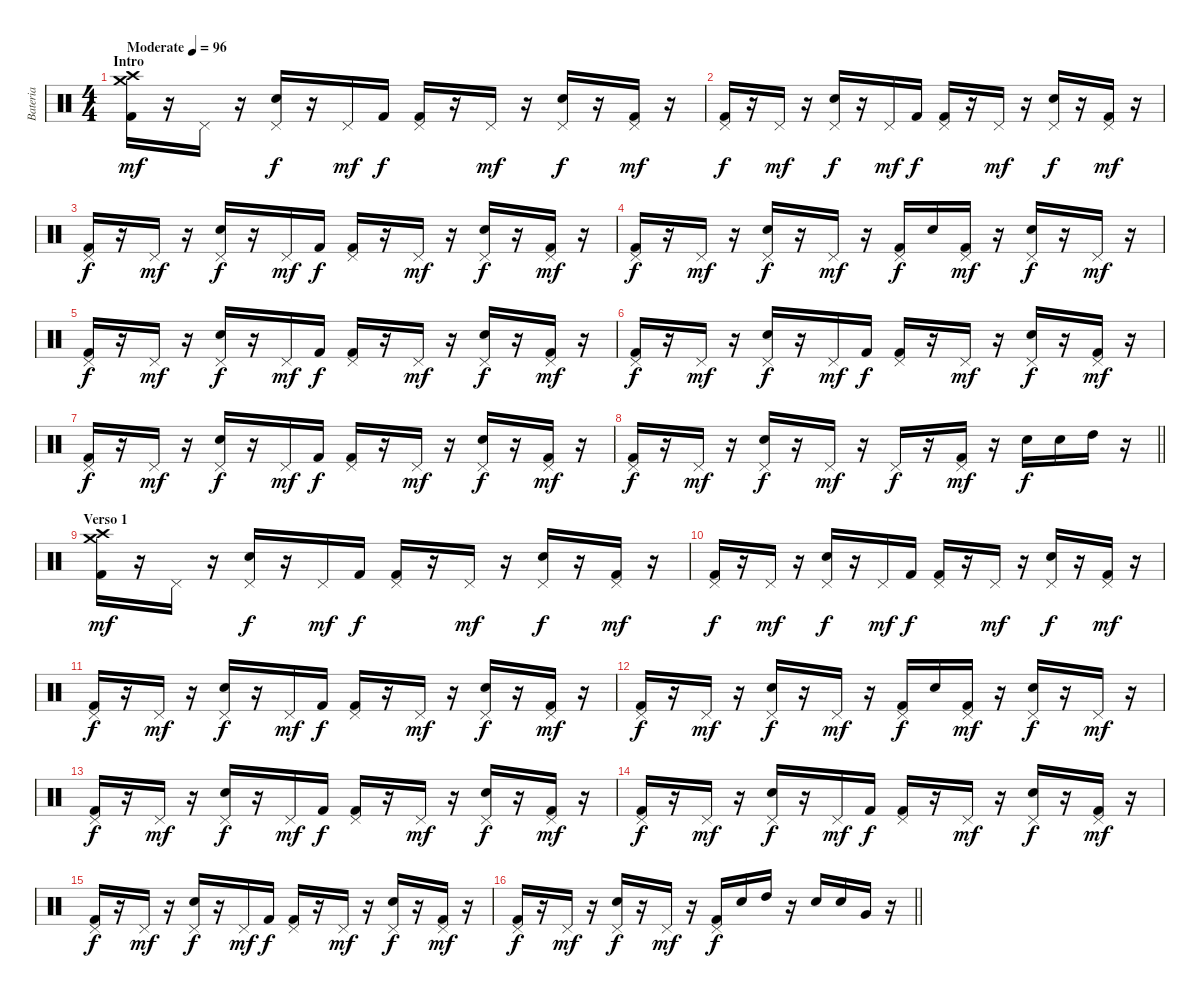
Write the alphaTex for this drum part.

\track ("Bateria" "Bateria") {instrument percussion}
\staff {score}
\articulation defaults
\ts (4 4)
\section ("" "Intro")
\tempo (96 "Moderate")
\clef neutral
\ks c
("Crash medium (hit)" "Crash high (hit)" "Kick (hit) 2").16{dy mf} r.16 "Pedal Hi-Hat (hit)".16 r.16 ("Pedal Hi-Hat (hit)" "Electric Snare (hit)").16{dy f} r.16 "Pedal Hi-Hat (hit)".16{dy mf} "Kick (hit) 2".16{dy f} ("Pedal Hi-Hat (hit)" "Kick (hit) 2").16 r.16 "Pedal Hi-Hat (hit)".16{dy mf} r.16 ("Pedal Hi-Hat (hit)" "Electric Snare (hit)").16{dy f} r.16 ("Pedal Hi-Hat (hit)" "Kick (hit) 2").16{dy mf} r.16 |
("Pedal Hi-Hat (hit)" "Kick (hit) 2").16{dy f} r.16 "Pedal Hi-Hat (hit)".16{dy mf} r.16 ("Pedal Hi-Hat (hit)" "Electric Snare (hit)").16{dy f} r.16 "Pedal Hi-Hat (hit)".16{dy mf} "Kick (hit) 2".16{dy f} ("Pedal Hi-Hat (hit)" "Kick (hit) 2").16 r.16 "Pedal Hi-Hat (hit)".16{dy mf} r.16 ("Pedal Hi-Hat (hit)" "Electric Snare (hit)").16{dy f} r.16 ("Pedal Hi-Hat (hit)" "Kick (hit) 2").16{dy mf} r.16 |
("Pedal Hi-Hat (hit)" "Kick (hit) 2").16{dy f} r.16 "Pedal Hi-Hat (hit)".16{dy mf} r.16 ("Pedal Hi-Hat (hit)" "Electric Snare (hit)").16{dy f} r.16 "Pedal Hi-Hat (hit)".16{dy mf} "Kick (hit) 2".16{dy f} ("Pedal Hi-Hat (hit)" "Kick (hit) 2").16 r.16 "Pedal Hi-Hat (hit)".16{dy mf} r.16 ("Pedal Hi-Hat (hit)" "Electric Snare (hit)").16{dy f} r.16 ("Pedal Hi-Hat (hit)" "Kick (hit) 2").16{dy mf} r.16 |
("Pedal Hi-Hat (hit)" "Kick (hit) 2").16{dy f} r.16 "Pedal Hi-Hat (hit)".16{dy mf} r.16 ("Pedal Hi-Hat (hit)" "Electric Snare (hit)").16{dy f} r.16 "Pedal Hi-Hat (hit)".16{dy mf} r.16 ("Pedal Hi-Hat (hit)" "Kick (hit) 2").16{dy f} "Electric Snare (hit)".16 ("Pedal Hi-Hat (hit)" "Kick (hit) 2").16{dy mf} r.16 ("Pedal Hi-Hat (hit)" "Electric Snare (hit)").16{dy f} r.16 "Pedal Hi-Hat (hit)".16{dy mf} r.16 |
("Pedal Hi-Hat (hit)" "Kick (hit) 2").16{dy f} r.16 "Pedal Hi-Hat (hit)".16{dy mf} r.16 ("Pedal Hi-Hat (hit)" "Electric Snare (hit)").16{dy f} r.16 "Pedal Hi-Hat (hit)".16{dy mf} "Kick (hit) 2".16{dy f} ("Pedal Hi-Hat (hit)" "Kick (hit) 2").16 r.16 "Pedal Hi-Hat (hit)".16{dy mf} r.16 ("Pedal Hi-Hat (hit)" "Electric Snare (hit)").16{dy f} r.16 ("Pedal Hi-Hat (hit)" "Kick (hit) 2").16{dy mf} r.16 |
("Pedal Hi-Hat (hit)" "Kick (hit) 2").16{dy f} r.16 "Pedal Hi-Hat (hit)".16{dy mf} r.16 ("Pedal Hi-Hat (hit)" "Electric Snare (hit)").16{dy f} r.16 "Pedal Hi-Hat (hit)".16{dy mf} "Kick (hit) 2".16{dy f} ("Pedal Hi-Hat (hit)" "Kick (hit) 2").16 r.16 "Pedal Hi-Hat (hit)".16{dy mf} r.16 ("Pedal Hi-Hat (hit)" "Electric Snare (hit)").16{dy f} r.16 ("Pedal Hi-Hat (hit)" "Kick (hit) 2").16{dy mf} r.16 |
("Pedal Hi-Hat (hit)" "Kick (hit) 2").16{dy f} r.16 "Pedal Hi-Hat (hit)".16{dy mf} r.16 ("Pedal Hi-Hat (hit)" "Electric Snare (hit)").16{dy f} r.16 "Pedal Hi-Hat (hit)".16{dy mf} "Kick (hit) 2".16{dy f} ("Pedal Hi-Hat (hit)" "Kick (hit) 2").16 r.16 "Pedal Hi-Hat (hit)".16{dy mf} r.16 ("Pedal Hi-Hat (hit)" "Electric Snare (hit)").16{dy f} r.16 ("Pedal Hi-Hat (hit)" "Kick (hit) 2").16{dy mf} r.16 |
\barLineRight lightlight
("Pedal Hi-Hat (hit)" "Kick (hit) 2").16{dy f} r.16 "Pedal Hi-Hat (hit)".16{dy mf} r.16 ("Pedal Hi-Hat (hit)" "Electric Snare (hit)").16{dy f} r.16 "Pedal Hi-Hat (hit)".16{dy mf} r.16 "Pedal Hi-Hat (hit)".16{dy f} r.16 ("Pedal Hi-Hat (hit)" "Kick (hit) 2").16{dy mf} r.16 "Electric Snare (hit)".16{dy f} "Electric Snare (hit)".16 "High Tom (hit)".16 r.16 |
\section ("" "Verso 1")
("Crash medium (hit)" "Crash high (hit)" "Kick (hit) 2").16{dy mf} r.16 "Pedal Hi-Hat (hit)".16 r.16 ("Pedal Hi-Hat (hit)" "Electric Snare (hit)").16{dy f} r.16 "Pedal Hi-Hat (hit)".16{dy mf} "Kick (hit) 2".16{dy f} ("Pedal Hi-Hat (hit)" "Kick (hit) 2").16 r.16 "Pedal Hi-Hat (hit)".16{dy mf} r.16 ("Pedal Hi-Hat (hit)" "Electric Snare (hit)").16{dy f} r.16 ("Pedal Hi-Hat (hit)" "Kick (hit) 2").16{dy mf} r.16 |
("Pedal Hi-Hat (hit)" "Kick (hit) 2").16{dy f} r.16 "Pedal Hi-Hat (hit)".16{dy mf} r.16 ("Pedal Hi-Hat (hit)" "Electric Snare (hit)").16{dy f} r.16 "Pedal Hi-Hat (hit)".16{dy mf} "Kick (hit) 2".16{dy f} ("Pedal Hi-Hat (hit)" "Kick (hit) 2").16 r.16 "Pedal Hi-Hat (hit)".16{dy mf} r.16 ("Pedal Hi-Hat (hit)" "Electric Snare (hit)").16{dy f} r.16 ("Pedal Hi-Hat (hit)" "Kick (hit) 2").16{dy mf} r.16 |
("Pedal Hi-Hat (hit)" "Kick (hit) 2").16{dy f} r.16 "Pedal Hi-Hat (hit)".16{dy mf} r.16 ("Pedal Hi-Hat (hit)" "Electric Snare (hit)").16{dy f} r.16 "Pedal Hi-Hat (hit)".16{dy mf} "Kick (hit) 2".16{dy f} ("Pedal Hi-Hat (hit)" "Kick (hit) 2").16 r.16 "Pedal Hi-Hat (hit)".16{dy mf} r.16 ("Pedal Hi-Hat (hit)" "Electric Snare (hit)").16{dy f} r.16 ("Pedal Hi-Hat (hit)" "Kick (hit) 2").16{dy mf} r.16 |
("Pedal Hi-Hat (hit)" "Kick (hit) 2").16{dy f} r.16 "Pedal Hi-Hat (hit)".16{dy mf} r.16 ("Pedal Hi-Hat (hit)" "Electric Snare (hit)").16{dy f} r.16 "Pedal Hi-Hat (hit)".16{dy mf} r.16 ("Pedal Hi-Hat (hit)" "Kick (hit) 2").16{dy f} "Electric Snare (hit)".16 ("Pedal Hi-Hat (hit)" "Kick (hit) 2").16{dy mf} r.16 ("Pedal Hi-Hat (hit)" "Electric Snare (hit)").16{dy f} r.16 "Pedal Hi-Hat (hit)".16{dy mf} r.16 |
("Pedal Hi-Hat (hit)" "Kick (hit) 2").16{dy f} r.16 "Pedal Hi-Hat (hit)".16{dy mf} r.16 ("Pedal Hi-Hat (hit)" "Electric Snare (hit)").16{dy f} r.16 "Pedal Hi-Hat (hit)".16{dy mf} "Kick (hit) 2".16{dy f} ("Pedal Hi-Hat (hit)" "Kick (hit) 2").16 r.16 "Pedal Hi-Hat (hit)".16{dy mf} r.16 ("Pedal Hi-Hat (hit)" "Electric Snare (hit)").16{dy f} r.16 ("Pedal Hi-Hat (hit)" "Kick (hit) 2").16{dy mf} r.16 |
("Pedal Hi-Hat (hit)" "Kick (hit) 2").16{dy f} r.16 "Pedal Hi-Hat (hit)".16{dy mf} r.16 ("Pedal Hi-Hat (hit)" "Electric Snare (hit)").16{dy f} r.16 "Pedal Hi-Hat (hit)".16{dy mf} "Kick (hit) 2".16{dy f} ("Pedal Hi-Hat (hit)" "Kick (hit) 2").16 r.16 "Pedal Hi-Hat (hit)".16{dy mf} r.16 ("Pedal Hi-Hat (hit)" "Electric Snare (hit)").16{dy f} r.16 ("Pedal Hi-Hat (hit)" "Kick (hit) 2").16{dy mf} r.16 |
("Pedal Hi-Hat (hit)" "Kick (hit) 2").16{dy f} r.16 "Pedal Hi-Hat (hit)".16{dy mf} r.16 ("Pedal Hi-Hat (hit)" "Electric Snare (hit)").16{dy f} r.16 "Pedal Hi-Hat (hit)".16{dy mf} "Kick (hit) 2".16{dy f} ("Pedal Hi-Hat (hit)" "Kick (hit) 2").16 r.16 "Pedal Hi-Hat (hit)".16{dy mf} r.16 ("Pedal Hi-Hat (hit)" "Electric Snare (hit)").16{dy f} r.16 ("Pedal Hi-Hat (hit)" "Kick (hit) 2").16{dy mf} r.16 |
\barLineRight lightlight
("Pedal Hi-Hat (hit)" "Kick (hit) 2").16{dy f} r.16 "Pedal Hi-Hat (hit)".16{dy mf} r.16 ("Pedal Hi-Hat (hit)" "Electric Snare (hit)").16{dy f} r.16 "Pedal Hi-Hat (hit)".16{dy mf} r.16 ("Pedal Hi-Hat (hit)" "Kick (hit) 2").16{dy f} "Electric Snare (hit)".16 "High Tom (hit)".16 r.16 "Electric Snare (hit)".16 "Electric Snare (hit)".16 "Very Low Tom (hit)".16 r.16
